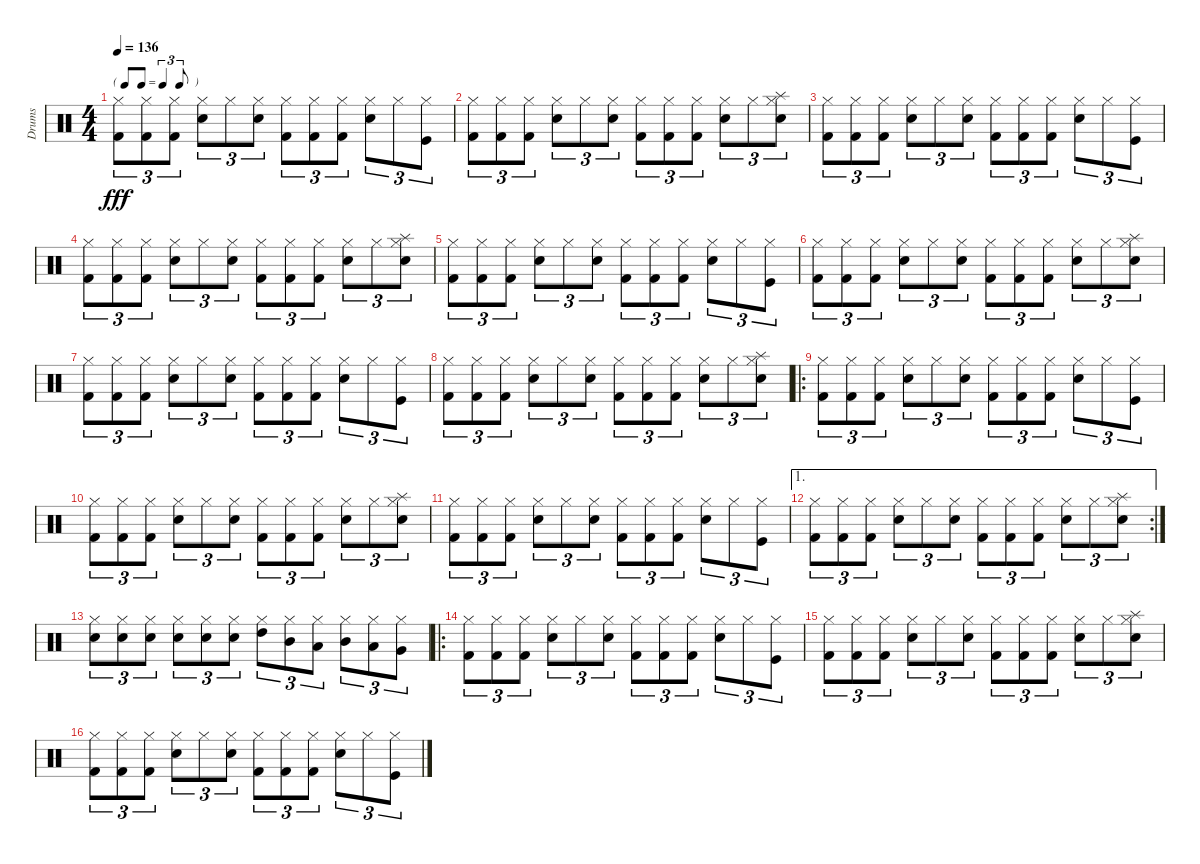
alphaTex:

\track ("Drums" "Drums") {instrument percussion}
\staff {score}
\articulation defaults
\ts (4 4)
\tf triplet8th
\tempo 136
\clef neutral
\ks c
("Hi-Hat (closed)" "Kick (hit) 2").8{tu (3 2) dy fff} ("Hi-Hat (closed)" "Kick (hit) 2").8{tu (3 2)} ("Hi-Hat (closed)" "Kick (hit) 2").8{tu (3 2)} ("Hi-Hat (closed)" "Snare (hit) 2").8{tu (3 2)} "Hi-Hat (closed)".8{tu (3 2)} ("Hi-Hat (closed)" "Snare (hit) 2").8{tu (3 2)} ("Hi-Hat (closed)" "Kick (hit) 2").8{tu (3 2)} ("Hi-Hat (closed)" "Kick (hit) 2").8{tu (3 2)} ("Hi-Hat (closed)" "Kick (hit) 2").8{tu (3 2)} ("Hi-Hat (closed)" "Snare (hit) 2").8{tu (3 2)} "Hi-Hat (closed)".8{tu (3 2)} ("Hi-Hat (closed)" "Kick (hit)").8{tu (3 2)} |
("Hi-Hat (closed)" "Kick (hit) 2").8{tu (3 2)} ("Hi-Hat (closed)" "Kick (hit) 2").8{tu (3 2)} ("Hi-Hat (closed)" "Kick (hit) 2").8{tu (3 2)} ("Hi-Hat (closed)" "Snare (hit) 2").8{tu (3 2)} "Hi-Hat (closed)".8{tu (3 2)} ("Hi-Hat (closed)" "Snare (hit) 2").8{tu (3 2)} ("Hi-Hat (closed)" "Kick (hit) 2").8{tu (3 2)} ("Hi-Hat (closed)" "Kick (hit) 2").8{tu (3 2)} ("Hi-Hat (closed)" "Kick (hit) 2").8{tu (3 2)} ("Hi-Hat (closed)" "Snare (hit) 2").8{tu (3 2)} "Hi-Hat (closed)".8{tu (3 2)} ("Hi-Hat (closed)" "Snare (hit) 2" "Splash (hit)").8{tu (3 2)} |
("Hi-Hat (closed)" "Kick (hit) 2").8{tu (3 2)} ("Hi-Hat (closed)" "Kick (hit) 2").8{tu (3 2)} ("Hi-Hat (closed)" "Kick (hit) 2").8{tu (3 2)} ("Hi-Hat (closed)" "Snare (hit) 2").8{tu (3 2)} "Hi-Hat (closed)".8{tu (3 2)} ("Hi-Hat (closed)" "Snare (hit) 2").8{tu (3 2)} ("Hi-Hat (closed)" "Kick (hit) 2").8{tu (3 2)} ("Hi-Hat (closed)" "Kick (hit) 2").8{tu (3 2)} ("Hi-Hat (closed)" "Kick (hit) 2").8{tu (3 2)} ("Hi-Hat (closed)" "Snare (hit) 2").8{tu (3 2)} "Hi-Hat (closed)".8{tu (3 2)} ("Hi-Hat (closed)" "Kick (hit)").8{tu (3 2)} |
("Hi-Hat (closed)" "Kick (hit) 2").8{tu (3 2)} ("Hi-Hat (closed)" "Kick (hit) 2").8{tu (3 2)} ("Hi-Hat (closed)" "Kick (hit) 2").8{tu (3 2)} ("Hi-Hat (closed)" "Snare (hit) 2").8{tu (3 2)} "Hi-Hat (closed)".8{tu (3 2)} ("Hi-Hat (closed)" "Snare (hit) 2").8{tu (3 2)} ("Hi-Hat (closed)" "Kick (hit) 2").8{tu (3 2)} ("Hi-Hat (closed)" "Kick (hit) 2").8{tu (3 2)} ("Hi-Hat (closed)" "Kick (hit) 2").8{tu (3 2)} ("Hi-Hat (closed)" "Snare (hit) 2").8{tu (3 2)} "Hi-Hat (closed)".8{tu (3 2)} ("Hi-Hat (closed)" "Snare (hit) 2" "Splash (hit)").8{tu (3 2)} |
("Hi-Hat (closed)" "Kick (hit) 2").8{tu (3 2)} ("Hi-Hat (closed)" "Kick (hit) 2").8{tu (3 2)} ("Hi-Hat (closed)" "Kick (hit) 2").8{tu (3 2)} ("Hi-Hat (closed)" "Snare (hit) 2").8{tu (3 2)} "Hi-Hat (closed)".8{tu (3 2)} ("Hi-Hat (closed)" "Snare (hit) 2").8{tu (3 2)} ("Hi-Hat (closed)" "Kick (hit) 2").8{tu (3 2)} ("Hi-Hat (closed)" "Kick (hit) 2").8{tu (3 2)} ("Hi-Hat (closed)" "Kick (hit) 2").8{tu (3 2)} ("Hi-Hat (closed)" "Snare (hit) 2").8{tu (3 2)} "Hi-Hat (closed)".8{tu (3 2)} ("Hi-Hat (closed)" "Kick (hit)").8{tu (3 2)} |
("Hi-Hat (closed)" "Kick (hit) 2").8{tu (3 2)} ("Hi-Hat (closed)" "Kick (hit) 2").8{tu (3 2)} ("Hi-Hat (closed)" "Kick (hit) 2").8{tu (3 2)} ("Hi-Hat (closed)" "Snare (hit) 2").8{tu (3 2)} "Hi-Hat (closed)".8{tu (3 2)} ("Hi-Hat (closed)" "Snare (hit) 2").8{tu (3 2)} ("Hi-Hat (closed)" "Kick (hit) 2").8{tu (3 2)} ("Hi-Hat (closed)" "Kick (hit) 2").8{tu (3 2)} ("Hi-Hat (closed)" "Kick (hit) 2").8{tu (3 2)} ("Hi-Hat (closed)" "Snare (hit) 2").8{tu (3 2)} "Hi-Hat (closed)".8{tu (3 2)} ("Hi-Hat (closed)" "Snare (hit) 2" "Splash (hit)").8{tu (3 2)} |
("Hi-Hat (closed)" "Kick (hit) 2").8{tu (3 2)} ("Hi-Hat (closed)" "Kick (hit) 2").8{tu (3 2)} ("Hi-Hat (closed)" "Kick (hit) 2").8{tu (3 2)} ("Hi-Hat (closed)" "Snare (hit) 2").8{tu (3 2)} "Hi-Hat (closed)".8{tu (3 2)} ("Hi-Hat (closed)" "Snare (hit) 2").8{tu (3 2)} ("Hi-Hat (closed)" "Kick (hit) 2").8{tu (3 2)} ("Hi-Hat (closed)" "Kick (hit) 2").8{tu (3 2)} ("Hi-Hat (closed)" "Kick (hit) 2").8{tu (3 2)} ("Hi-Hat (closed)" "Snare (hit) 2").8{tu (3 2)} "Hi-Hat (closed)".8{tu (3 2)} ("Hi-Hat (closed)" "Kick (hit)").8{tu (3 2)} |
("Hi-Hat (closed)" "Kick (hit) 2").8{tu (3 2)} ("Hi-Hat (closed)" "Kick (hit) 2").8{tu (3 2)} ("Hi-Hat (closed)" "Kick (hit) 2").8{tu (3 2)} ("Hi-Hat (closed)" "Snare (hit) 2").8{tu (3 2)} "Hi-Hat (closed)".8{tu (3 2)} ("Hi-Hat (closed)" "Snare (hit) 2").8{tu (3 2)} ("Hi-Hat (closed)" "Kick (hit) 2").8{tu (3 2)} ("Hi-Hat (closed)" "Kick (hit) 2").8{tu (3 2)} ("Hi-Hat (closed)" "Kick (hit) 2").8{tu (3 2)} ("Hi-Hat (closed)" "Snare (hit) 2").8{tu (3 2)} "Hi-Hat (closed)".8{tu (3 2)} ("Hi-Hat (closed)" "Snare (hit) 2" "Splash (hit)").8{tu (3 2)} |
\ro
("Hi-Hat (closed)" "Kick (hit) 2").8{tu (3 2)} ("Hi-Hat (closed)" "Kick (hit) 2").8{tu (3 2)} ("Hi-Hat (closed)" "Kick (hit) 2").8{tu (3 2)} ("Hi-Hat (closed)" "Snare (hit) 2").8{tu (3 2)} "Hi-Hat (closed)".8{tu (3 2)} ("Hi-Hat (closed)" "Snare (hit) 2").8{tu (3 2)} ("Hi-Hat (closed)" "Kick (hit) 2").8{tu (3 2)} ("Hi-Hat (closed)" "Kick (hit) 2").8{tu (3 2)} ("Hi-Hat (closed)" "Kick (hit) 2").8{tu (3 2)} ("Hi-Hat (closed)" "Snare (hit) 2").8{tu (3 2)} "Hi-Hat (closed)".8{tu (3 2)} ("Hi-Hat (closed)" "Kick (hit)").8{tu (3 2)} |
("Hi-Hat (closed)" "Kick (hit) 2").8{tu (3 2)} ("Hi-Hat (closed)" "Kick (hit) 2").8{tu (3 2)} ("Hi-Hat (closed)" "Kick (hit) 2").8{tu (3 2)} ("Hi-Hat (closed)" "Snare (hit) 2").8{tu (3 2)} "Hi-Hat (closed)".8{tu (3 2)} ("Hi-Hat (closed)" "Snare (hit) 2").8{tu (3 2)} ("Hi-Hat (closed)" "Kick (hit) 2").8{tu (3 2)} ("Hi-Hat (closed)" "Kick (hit) 2").8{tu (3 2)} ("Hi-Hat (closed)" "Kick (hit) 2").8{tu (3 2)} ("Hi-Hat (closed)" "Snare (hit) 2").8{tu (3 2)} "Hi-Hat (closed)".8{tu (3 2)} ("Hi-Hat (closed)" "Snare (hit) 2" "Splash (hit)").8{tu (3 2)} |
("Hi-Hat (closed)" "Kick (hit) 2").8{tu (3 2)} ("Hi-Hat (closed)" "Kick (hit) 2").8{tu (3 2)} ("Hi-Hat (closed)" "Kick (hit) 2").8{tu (3 2)} ("Hi-Hat (closed)" "Snare (hit) 2").8{tu (3 2)} "Hi-Hat (closed)".8{tu (3 2)} ("Hi-Hat (closed)" "Snare (hit) 2").8{tu (3 2)} ("Hi-Hat (closed)" "Kick (hit) 2").8{tu (3 2)} ("Hi-Hat (closed)" "Kick (hit) 2").8{tu (3 2)} ("Hi-Hat (closed)" "Kick (hit) 2").8{tu (3 2)} ("Hi-Hat (closed)" "Snare (hit) 2").8{tu (3 2)} "Hi-Hat (closed)".8{tu (3 2)} ("Hi-Hat (closed)" "Kick (hit)").8{tu (3 2)} |
\ae 1
\rc 2
("Hi-Hat (closed)" "Kick (hit) 2").8{tu (3 2)} ("Hi-Hat (closed)" "Kick (hit) 2").8{tu (3 2)} ("Hi-Hat (closed)" "Kick (hit) 2").8{tu (3 2)} ("Hi-Hat (closed)" "Snare (hit) 2").8{tu (3 2)} "Hi-Hat (closed)".8{tu (3 2)} ("Hi-Hat (closed)" "Snare (hit) 2").8{tu (3 2)} ("Hi-Hat (closed)" "Kick (hit) 2").8{tu (3 2)} ("Hi-Hat (closed)" "Kick (hit) 2").8{tu (3 2)} ("Hi-Hat (closed)" "Kick (hit) 2").8{tu (3 2)} ("Hi-Hat (closed)" "Snare (hit) 2").8{tu (3 2)} "Hi-Hat (closed)".8{tu (3 2)} ("Hi-Hat (closed)" "Snare (hit) 2" "Splash (hit)").8{tu (3 2)} |
("Hi-Hat (closed)" "Snare (hit) 2").8{tu (3 2)} ("Hi-Hat (closed)" "Snare (hit) 2").8{tu (3 2)} ("Hi-Hat (closed)" "Snare (hit) 2").8{tu (3 2)} ("Hi-Hat (closed)" "Snare (hit) 2").8{tu (3 2)} ("Hi-Hat (closed)" "Snare (hit) 2").8{tu (3 2)} ("Hi-Hat (closed)" "Snare (hit) 2").8{tu (3 2)} ("Hi-Hat (closed)" "High Tom (hit)").8{tu (3 2)} ("Hi-Hat (closed)" "Mid Tom (hit)").8{tu (3 2)} ("Hi-Hat (closed)" "Low Tom (hit)").8{tu (3 2)} ("Hi-Hat (closed)" "Mid Tom (hit)").8{tu (3 2)} ("Hi-Hat (closed)" "Low Tom (hit)").8{tu (3 2)} ("Hi-Hat (closed)" "Very Low Tom (hit)").8{tu (3 2)} |
\ro
("Hi-Hat (closed)" "Kick (hit) 2").8{tu (3 2)} ("Hi-Hat (closed)" "Kick (hit) 2").8{tu (3 2)} ("Hi-Hat (closed)" "Kick (hit) 2").8{tu (3 2)} ("Hi-Hat (closed)" "Snare (hit) 2").8{tu (3 2)} "Hi-Hat (closed)".8{tu (3 2)} ("Hi-Hat (closed)" "Snare (hit) 2").8{tu (3 2)} ("Hi-Hat (closed)" "Kick (hit) 2").8{tu (3 2)} ("Hi-Hat (closed)" "Kick (hit) 2").8{tu (3 2)} ("Hi-Hat (closed)" "Kick (hit) 2").8{tu (3 2)} ("Hi-Hat (closed)" "Snare (hit) 2").8{tu (3 2)} "Hi-Hat (closed)".8{tu (3 2)} ("Hi-Hat (closed)" "Kick (hit)").8{tu (3 2)} |
("Hi-Hat (closed)" "Kick (hit) 2").8{tu (3 2)} ("Hi-Hat (closed)" "Kick (hit) 2").8{tu (3 2)} ("Hi-Hat (closed)" "Kick (hit) 2").8{tu (3 2)} ("Hi-Hat (closed)" "Snare (hit) 2").8{tu (3 2)} "Hi-Hat (closed)".8{tu (3 2)} ("Hi-Hat (closed)" "Snare (hit) 2").8{tu (3 2)} ("Hi-Hat (closed)" "Kick (hit) 2").8{tu (3 2)} ("Hi-Hat (closed)" "Kick (hit) 2").8{tu (3 2)} ("Hi-Hat (closed)" "Kick (hit) 2").8{tu (3 2)} ("Hi-Hat (closed)" "Snare (hit) 2").8{tu (3 2)} "Hi-Hat (closed)".8{tu (3 2)} ("Hi-Hat (closed)" "Snare (hit) 2" "Splash (hit)").8{tu (3 2)} |
("Hi-Hat (closed)" "Kick (hit) 2").8{tu (3 2)} ("Hi-Hat (closed)" "Kick (hit) 2").8{tu (3 2)} ("Hi-Hat (closed)" "Kick (hit) 2").8{tu (3 2)} ("Hi-Hat (closed)" "Snare (hit) 2").8{tu (3 2)} "Hi-Hat (closed)".8{tu (3 2)} ("Hi-Hat (closed)" "Snare (hit) 2").8{tu (3 2)} ("Hi-Hat (closed)" "Kick (hit) 2").8{tu (3 2)} ("Hi-Hat (closed)" "Kick (hit) 2").8{tu (3 2)} ("Hi-Hat (closed)" "Kick (hit) 2").8{tu (3 2)} ("Hi-Hat (closed)" "Snare (hit) 2").8{tu (3 2)} "Hi-Hat (closed)".8{tu (3 2)} ("Hi-Hat (closed)" "Kick (hit)").8{tu (3 2)}
